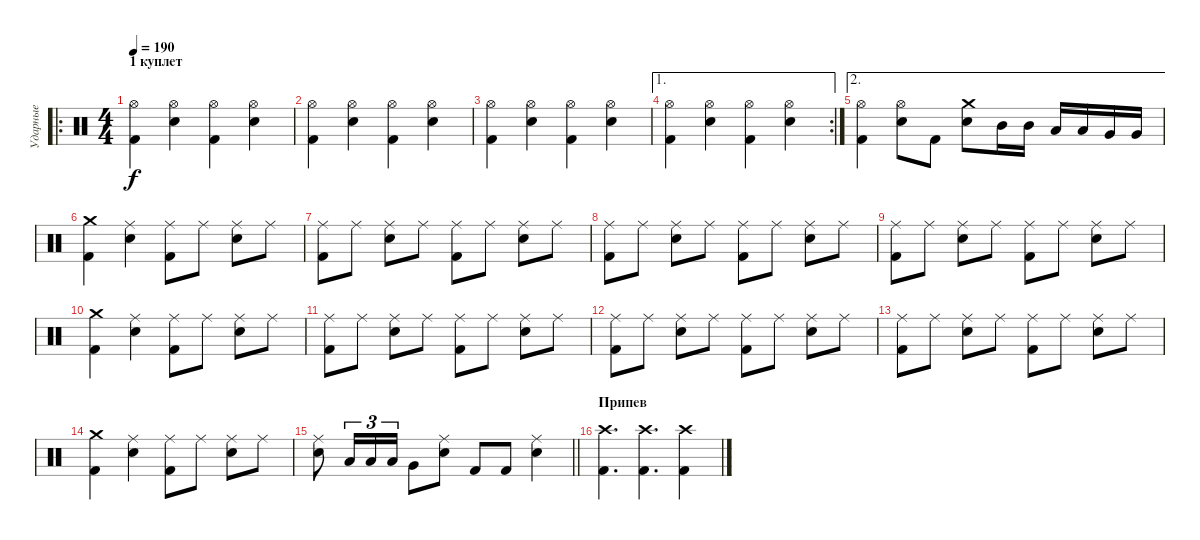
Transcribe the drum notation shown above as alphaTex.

\track ("Ударные" "Ударные") {instrument percussion}
\staff {score}
\articulation defaults
\ro
\ts (4 4)
\section ("" "1 куплет")
\tempo 190
\clef neutral
\ks c
("Hi-Hat (open)" "Kick (hit) 2").4{dy f} ("Hi-Hat (open)" "Electric Snare (hit)").4 ("Hi-Hat (open)" "Kick (hit) 2").4 ("Hi-Hat (open)" "Electric Snare (hit)").4 |
("Hi-Hat (open)" "Kick (hit) 2").4 ("Hi-Hat (open)" "Electric Snare (hit)").4 ("Hi-Hat (open)" "Kick (hit) 2").4 ("Hi-Hat (open)" "Electric Snare (hit)").4 |
("Hi-Hat (open)" "Kick (hit) 2").4 ("Hi-Hat (open)" "Electric Snare (hit)").4 ("Hi-Hat (open)" "Kick (hit) 2").4 ("Hi-Hat (open)" "Electric Snare (hit)").4 |
\ae 1
\rc 2
("Hi-Hat (open)" "Kick (hit) 2").4 ("Hi-Hat (open)" "Electric Snare (hit)").4 ("Hi-Hat (open)" "Kick (hit) 2").4 ("Hi-Hat (open)" "Electric Snare (hit)").4 |
\ae 2
("Hi-Hat (open)" "Kick (hit) 2").4 ("Hi-Hat (open)" "Electric Snare (hit)").8 "Kick (hit) 2".8 ("Crash medium (hit)" "Electric Snare (hit)").8 "Mid Tom (hit)".16 "Mid Tom (hit)".16 "Low Tom (hit)".16 "Low Tom (hit)".16 "Very Low Tom (hit)".16 "Very Low Tom (hit)".16 |
("Crash medium (hit)" "Kick (hit) 2").4 ("Ride (middle)" "Electric Snare (hit)").4 ("Ride (middle)" "Kick (hit) 2").8 "Ride (middle)".8 ("Ride (middle)" "Electric Snare (hit)").8 "Ride (middle)".8 |
("Ride (middle)" "Kick (hit) 2").8 "Ride (middle)".8 ("Ride (middle)" "Electric Snare (hit)").8 "Ride (middle)".8 ("Ride (middle)" "Kick (hit) 2").8 "Ride (middle)".8 ("Ride (middle)" "Electric Snare (hit)").8 "Ride (middle)".8 |
("Ride (middle)" "Kick (hit) 2").8 "Ride (middle)".8 ("Ride (middle)" "Electric Snare (hit)").8 "Ride (middle)".8 ("Ride (middle)" "Kick (hit) 2").8 "Ride (middle)".8 ("Ride (middle)" "Electric Snare (hit)").8 "Ride (middle)".8 |
("Ride (middle)" "Kick (hit) 2").8 "Ride (middle)".8 ("Ride (middle)" "Electric Snare (hit)").8 "Ride (middle)".8 ("Ride (middle)" "Kick (hit) 2").8 "Ride (middle)".8 ("Ride (middle)" "Electric Snare (hit)").8 "Ride (middle)".8 |
("Crash medium (hit)" "Kick (hit) 2").4 ("Ride (middle)" "Electric Snare (hit)").4 ("Ride (middle)" "Kick (hit) 2").8 "Ride (middle)".8 ("Ride (middle)" "Electric Snare (hit)").8 "Ride (middle)".8 |
("Ride (middle)" "Kick (hit) 2").8 "Ride (middle)".8 ("Ride (middle)" "Electric Snare (hit)").8 "Ride (middle)".8 ("Ride (middle)" "Kick (hit) 2").8 "Ride (middle)".8 ("Ride (middle)" "Electric Snare (hit)").8 "Ride (middle)".8 |
("Ride (middle)" "Kick (hit) 2").8 "Ride (middle)".8 ("Ride (middle)" "Electric Snare (hit)").8 "Ride (middle)".8 ("Ride (middle)" "Kick (hit) 2").8 "Ride (middle)".8 ("Ride (middle)" "Electric Snare (hit)").8 "Ride (middle)".8 |
("Ride (middle)" "Kick (hit) 2").8 "Ride (middle)".8 ("Ride (middle)" "Electric Snare (hit)").8 "Ride (middle)".8 ("Ride (middle)" "Kick (hit) 2").8 "Ride (middle)".8 ("Ride (middle)" "Electric Snare (hit)").8 "Ride (middle)".8 |
("Crash medium (hit)" "Kick (hit) 2").4 ("Ride (middle)" "Electric Snare (hit)").4 ("Ride (middle)" "Kick (hit) 2").8 "Ride (middle)".8 ("Ride (middle)" "Electric Snare (hit)").8 "Ride (middle)".8 |
\barLineRight lightlight
("Ride (middle)" "Electric Snare (hit)").8 "Low Tom (hit)".16{tu (3 2)} "Low Tom (hit)".16{tu (3 2)} "Low Tom (hit)".16{tu (3 2)} "Very Low Tom (hit)".8 ("Ride (middle)" "Electric Snare (hit)").8 "Kick (hit) 2".8 "Kick (hit) 2".8 ("Ride (middle)" "Electric Snare (hit)").4 |
\section ("" "Припев")
("Crash high (hit)" "Kick (hit) 2").4{d} ("Crash high (hit)" "Kick (hit) 2").4{d} ("Crash high (hit)" "Kick (hit) 2").4
